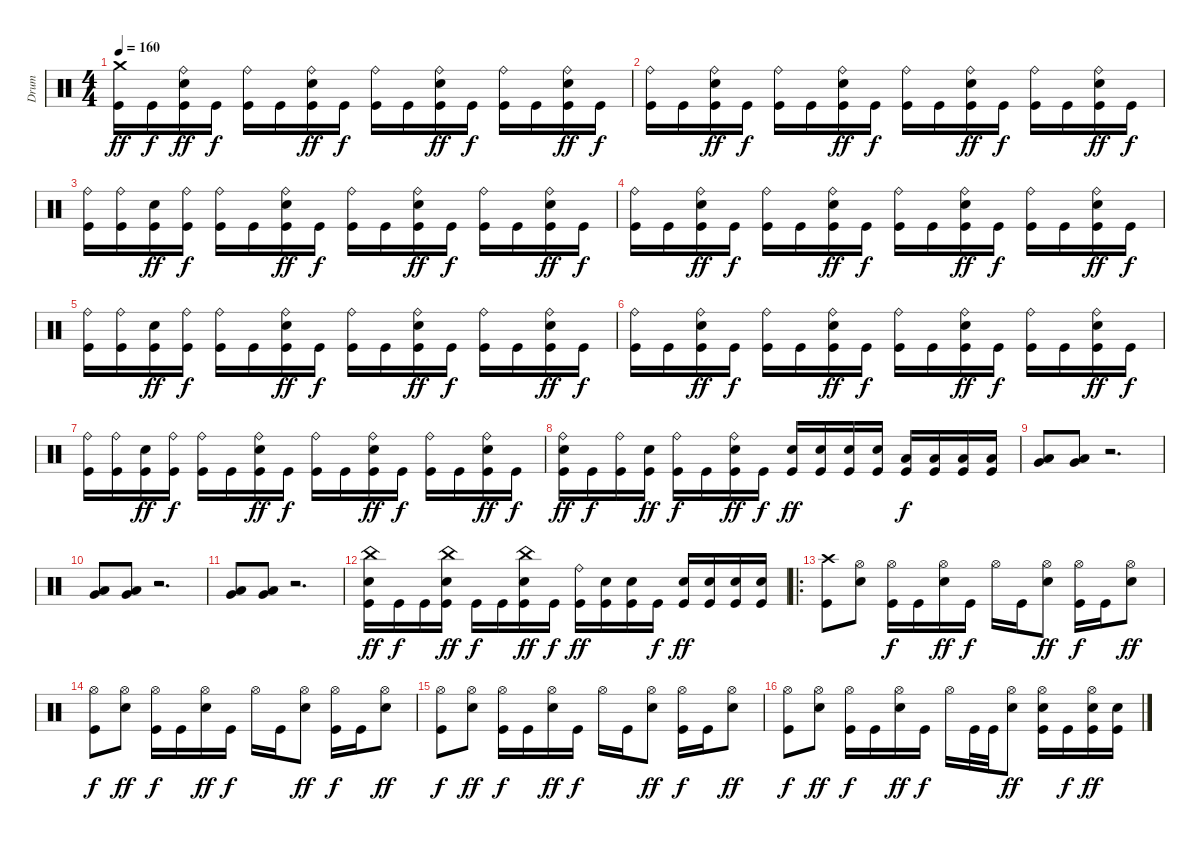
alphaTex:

\track ("Drum" "Drum") {instrument percussion}
\staff {score}
\articulation defaults
\ts (4 4)
\tempo 160
\clef neutral
\ks c
("Kick (hit)" "Crash medium (hit)").16{dy ff} "Kick (hit)".16{dy f} ("Kick (hit)" "Electric Snare (hit)" "Ride (bell)").16{dy ff} "Kick (hit)".16{dy f} ("Kick (hit)" "Ride (bell)").16 "Kick (hit)".16 ("Kick (hit)" "Electric Snare (hit)" "Ride (bell)").16{dy ff} "Kick (hit)".16{dy f} ("Kick (hit)" "Ride (bell)").16 "Kick (hit)".16 ("Kick (hit)" "Electric Snare (hit)" "Ride (bell)").16{dy ff} "Kick (hit)".16{dy f} ("Kick (hit)" "Ride (bell)").16 "Kick (hit)".16 ("Kick (hit)" "Electric Snare (hit)" "Ride (bell)").16{dy ff} "Kick (hit)".16{dy f} |
("Kick (hit)" "Ride (bell)").16 "Kick (hit)".16 ("Kick (hit)" "Electric Snare (hit)" "Ride (bell)").16{dy ff} "Kick (hit)".16{dy f} ("Kick (hit)" "Ride (bell)").16 "Kick (hit)".16 ("Kick (hit)" "Electric Snare (hit)" "Ride (bell)").16{dy ff} "Kick (hit)".16{dy f} ("Kick (hit)" "Ride (bell)").16 "Kick (hit)".16 ("Kick (hit)" "Electric Snare (hit)" "Ride (bell)").16{dy ff} "Kick (hit)".16{dy f} ("Kick (hit)" "Ride (bell)").16 "Kick (hit)".16 ("Kick (hit)" "Electric Snare (hit)" "Ride (bell)").16{dy ff} "Kick (hit)".16{dy f} |
("Kick (hit)" "Ride (bell)").16 ("Kick (hit)" "Ride (bell)").16 ("Kick (hit)" "Electric Snare (hit)").16{dy ff} ("Kick (hit)" "Ride (bell)").16{dy f} ("Kick (hit)" "Ride (bell)").16 "Kick (hit)".16 ("Kick (hit)" "Electric Snare (hit)" "Ride (bell)").16{dy ff} "Kick (hit)".16{dy f} ("Kick (hit)" "Ride (bell)").16 "Kick (hit)".16 ("Kick (hit)" "Electric Snare (hit)" "Ride (bell)").16{dy ff} "Kick (hit)".16{dy f} ("Kick (hit)" "Ride (bell)").16 "Kick (hit)".16 ("Kick (hit)" "Electric Snare (hit)" "Ride (bell)").16{dy ff} "Kick (hit)".16{dy f} |
("Kick (hit)" "Ride (bell)").16 "Kick (hit)".16 ("Kick (hit)" "Electric Snare (hit)" "Ride (bell)").16{dy ff} "Kick (hit)".16{dy f} ("Kick (hit)" "Ride (bell)").16 "Kick (hit)".16 ("Kick (hit)" "Electric Snare (hit)" "Ride (bell)").16{dy ff} "Kick (hit)".16{dy f} ("Kick (hit)" "Ride (bell)").16 "Kick (hit)".16 ("Kick (hit)" "Electric Snare (hit)" "Ride (bell)").16{dy ff} "Kick (hit)".16{dy f} ("Kick (hit)" "Ride (bell)").16 "Kick (hit)".16 ("Kick (hit)" "Electric Snare (hit)" "Ride (bell)").16{dy ff} "Kick (hit)".16{dy f} |
("Kick (hit)" "Ride (bell)").16 ("Kick (hit)" "Ride (bell)").16 ("Kick (hit)" "Electric Snare (hit)").16{dy ff} ("Kick (hit)" "Ride (bell)").16{dy f} ("Kick (hit)" "Ride (bell)").16 "Kick (hit)".16 ("Kick (hit)" "Electric Snare (hit)" "Ride (bell)").16{dy ff} "Kick (hit)".16{dy f} ("Kick (hit)" "Ride (bell)").16 "Kick (hit)".16 ("Kick (hit)" "Electric Snare (hit)" "Ride (bell)").16{dy ff} "Kick (hit)".16{dy f} ("Kick (hit)" "Ride (bell)").16 "Kick (hit)".16 ("Kick (hit)" "Electric Snare (hit)" "Ride (bell)").16{dy ff} "Kick (hit)".16{dy f} |
("Kick (hit)" "Ride (bell)").16 "Kick (hit)".16 ("Kick (hit)" "Electric Snare (hit)" "Ride (bell)").16{dy ff} "Kick (hit)".16{dy f} ("Kick (hit)" "Ride (bell)").16 "Kick (hit)".16 ("Kick (hit)" "Electric Snare (hit)" "Ride (bell)").16{dy ff} "Kick (hit)".16{dy f} ("Kick (hit)" "Ride (bell)").16 "Kick (hit)".16 ("Kick (hit)" "Electric Snare (hit)" "Ride (bell)").16{dy ff} "Kick (hit)".16{dy f} ("Kick (hit)" "Ride (bell)").16 "Kick (hit)".16 ("Kick (hit)" "Electric Snare (hit)" "Ride (bell)").16{dy ff} "Kick (hit)".16{dy f} |
("Kick (hit)" "Ride (bell)").16 ("Kick (hit)" "Ride (bell)").16 ("Kick (hit)" "Electric Snare (hit)").16{dy ff} ("Kick (hit)" "Ride (bell)").16{dy f} ("Kick (hit)" "Ride (bell)").16 "Kick (hit)".16 ("Kick (hit)" "Electric Snare (hit)" "Ride (bell)").16{dy ff} "Kick (hit)".16{dy f} ("Kick (hit)" "Ride (bell)").16 "Kick (hit)".16 ("Kick (hit)" "Electric Snare (hit)" "Ride (bell)").16{dy ff} "Kick (hit)".16{dy f} ("Kick (hit)" "Ride (bell)").16 "Kick (hit)".16 ("Kick (hit)" "Electric Snare (hit)" "Ride (bell)").16{dy ff} "Kick (hit)".16{dy f} |
("Kick (hit)" "Electric Snare (hit)" "Ride (bell)").16{dy ff} "Kick (hit)".16{dy f} ("Kick (hit)" "Ride (bell)").16 ("Kick (hit)" "Electric Snare (hit)").16{dy ff} ("Kick (hit)" "Ride (bell)").16{dy f} "Kick (hit)".16 ("Kick (hit)" "Electric Snare (hit)" "Ride (bell)").16{dy ff} "Kick (hit)".16{dy f} ("Kick (hit)" "Electric Snare (hit)").16{dy ff} ("Kick (hit)" "Electric Snare (hit)").16 ("Kick (hit)" "Electric Snare (hit)").16 ("Kick (hit)" "Electric Snare (hit)").16 ("Kick (hit)" "Low Tom (hit)").16{dy f} ("Kick (hit)" "Low Tom (hit)").16 ("Kick (hit)" "Low Tom (hit)").16 ("Kick (hit)" "Low Tom (hit)").16 |
("Very Low Tom (hit)" "Low Floor Tom (hit)").8 ("Very Low Tom (hit)" "Low Floor Tom (hit)").8 r.2{d} |
("Very Low Tom (hit)" "Low Floor Tom (hit)").8 ("Very Low Tom (hit)" "Low Floor Tom (hit)").8 r.2{d} |
("Very Low Tom (hit)" "Low Floor Tom (hit)").8 ("Very Low Tom (hit)" "Low Floor Tom (hit)").8 r.2{d} |
("Kick (hit)" "Electric Snare (hit)" "China (hit)").16{dy ff} "Kick (hit)".16{dy f} "Kick (hit)".16 ("Kick (hit)" "Electric Snare (hit)" "China (hit)").16{dy ff} "Kick (hit)".16{dy f} "Kick (hit)".16 ("Kick (hit)" "Electric Snare (hit)" "China (hit)").16{dy ff} "Kick (hit)".16{dy f} ("Kick (hit)" "Ride (bell)").16{dy ff} ("Kick (hit)" "Electric Snare (hit)").16 ("Kick (hit)" "Electric Snare (hit)").16 "Kick (hit)".16{dy f} ("Kick (hit)" "Electric Snare (hit)").16{dy ff} ("Kick (hit)" "Electric Snare (hit)").16 ("Kick (hit)" "Electric Snare (hit)").16 ("Kick (hit)" "Electric Snare (hit)").16 |
\ro
("Kick (hit)" "Crash high (hit)").8 ("Electric Snare (hit)" "Hi-Hat (open)").8 ("Kick (hit)" "Hi-Hat (open)").16{dy f} "Kick (hit)".16 ("Electric Snare (hit)" "Hi-Hat (open)").16{dy ff} "Kick (hit)".16{dy f} "Hi-Hat (open)".16 "Kick (hit)".16 ("Electric Snare (hit)" "Hi-Hat (open)").8{dy ff} ("Kick (hit)" "Hi-Hat (open)").16{dy f} "Kick (hit)".16 ("Electric Snare (hit)" "Hi-Hat (open)").8{dy ff} |
("Kick (hit)" "Hi-Hat (open)").8{dy f} ("Electric Snare (hit)" "Hi-Hat (open)").8{dy ff} ("Kick (hit)" "Hi-Hat (open)").16{dy f} "Kick (hit)".16 ("Electric Snare (hit)" "Hi-Hat (open)").16{dy ff} "Kick (hit)".16{dy f} "Hi-Hat (open)".16 "Kick (hit)".16 ("Electric Snare (hit)" "Hi-Hat (open)").8{dy ff} ("Kick (hit)" "Hi-Hat (open)").16{dy f} "Kick (hit)".16 ("Electric Snare (hit)" "Hi-Hat (open)").8{dy ff} |
("Kick (hit)" "Hi-Hat (open)").8{dy f} ("Electric Snare (hit)" "Hi-Hat (open)").8{dy ff} ("Kick (hit)" "Hi-Hat (open)").16{dy f} "Kick (hit)".16 ("Electric Snare (hit)" "Hi-Hat (open)").16{dy ff} "Kick (hit)".16{dy f} "Hi-Hat (open)".16 "Kick (hit)".16 ("Electric Snare (hit)" "Hi-Hat (open)").8{dy ff} ("Kick (hit)" "Hi-Hat (open)").16{dy f} "Kick (hit)".16 ("Electric Snare (hit)" "Hi-Hat (open)").8{dy ff} |
("Kick (hit)" "Hi-Hat (open)").8{dy f} ("Electric Snare (hit)" "Hi-Hat (open)").8{dy ff} ("Kick (hit)" "Hi-Hat (open)").16{dy f} "Kick (hit)".16 ("Electric Snare (hit)" "Hi-Hat (open)").16{dy ff} "Kick (hit)".16{dy f} "Hi-Hat (open)".16 "Kick (hit)".32 "Kick (hit)".32 ("Electric Snare (hit)" "Hi-Hat (open)").8{dy ff} ("Kick (hit)" "Electric Snare (hit)" "Hi-Hat (open)").16 "Kick (hit)".16{dy f} ("Kick (hit)" "Electric Snare (hit)" "Hi-Hat (open)").16{dy ff} ("Kick (hit)" "Electric Snare (hit)").16
